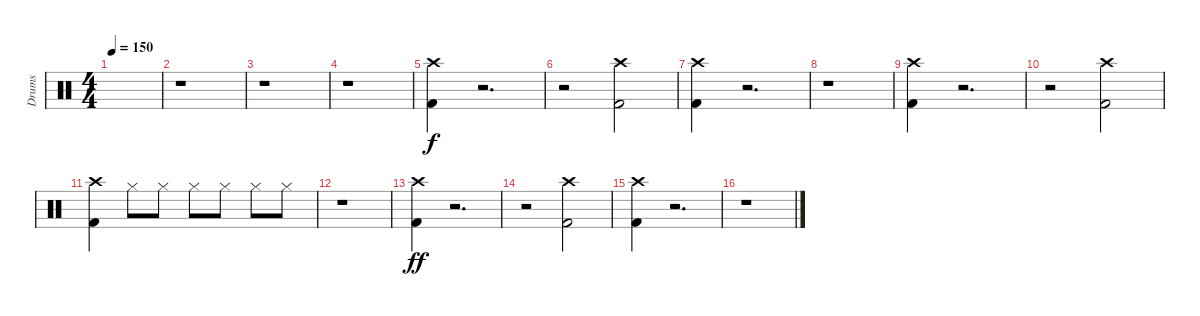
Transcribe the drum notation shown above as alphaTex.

\track ("Drums" "Drums") {instrument percussion}
\staff {score}
\articulation defaults
\ts (4 4)
\tempo 150
\clef neutral
\ks c
|
r.1 |
r.1 |
r.1 |
("Kick (hit) 2" "Crash high (hit)").4{volume 15} r.2{d} |
r.2 ("Kick (hit) 2" "Crash high (hit)").2 |
("Kick (hit) 2" "Crash high (hit)").4 r.2{d} |
r.1 |
("Kick (hit) 2" "Crash high (hit)").4 r.2{d} |
r.2 ("Kick (hit) 2" "Crash high (hit)").2 |
("Kick (hit) 2" "Crash high (hit)").4 "Hi-Hat (closed)".8{dy f} "Hi-Hat (closed)".8 "Hi-Hat (closed)".8 "Hi-Hat (closed)".8 "Hi-Hat (closed)".8 "Hi-Hat (closed)".8 |
r.1 |
("Kick (hit) 2" "Crash high (hit)").4{dy ff} r.2{d} |
r.2 ("Kick (hit) 2" "Crash high (hit)").2 |
("Kick (hit) 2" "Crash high (hit)").4 r.2{d} |
r.1
